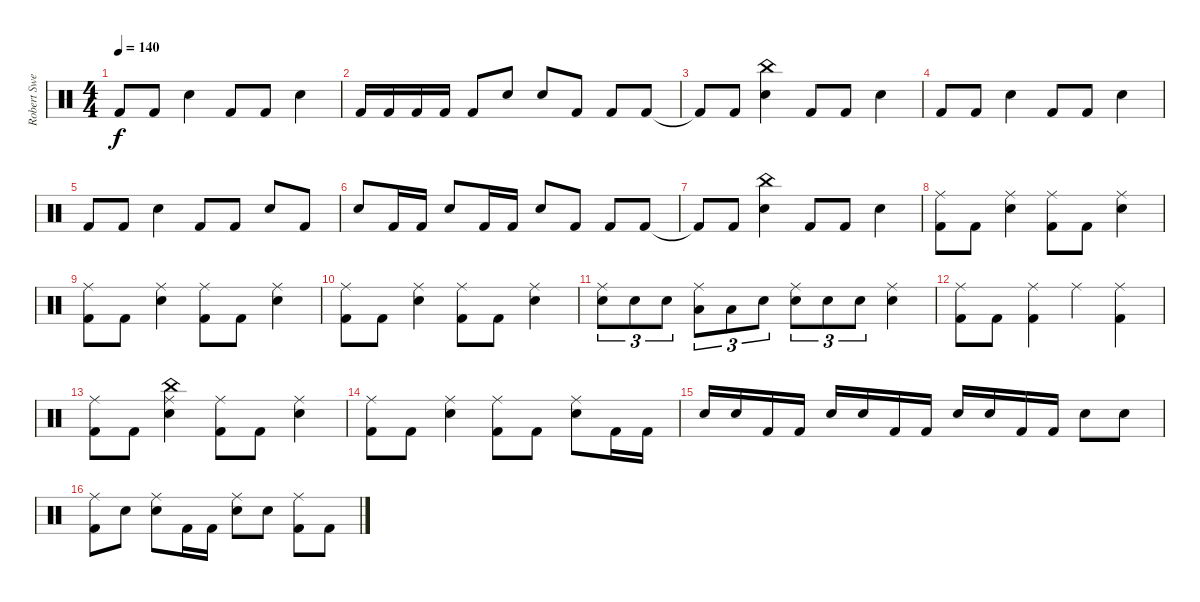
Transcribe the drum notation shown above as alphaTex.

\track ("Robert Sweet" "Robert Swe") {instrument percussion}
\staff {score}
\articulation defaults
\ts (4 4)
\tempo 140
\clef neutral
\ks c "Kick (hit) 2".8{dy f} "Kick (hit) 2".8 "Electric Snare (hit)".4 "Kick (hit) 2".8 "Kick (hit) 2".8 "Electric Snare (hit)".4
|
"Kick (hit) 2".16 "Kick (hit) 2".16 "Kick (hit) 2".16 "Kick (hit) 2".16 "Kick (hit) 2".8 "Electric Snare (hit)".8 "Electric Snare (hit)".8 "Kick (hit) 2".8 "Kick (hit) 2".8 "Kick (hit) 2".8 |
"Kick (hit) 2"{t}.8 "Kick (hit) 2".8 ("Electric Snare (hit)" "China (hit)").4 "Kick (hit) 2".8 "Kick (hit) 2".8 "Electric Snare (hit)".4 |
"Kick (hit) 2".8 "Kick (hit) 2".8 "Electric Snare (hit)".4 "Kick (hit) 2".8 "Kick (hit) 2".8 "Electric Snare (hit)".4 |
"Kick (hit) 2".8 "Kick (hit) 2".8 "Electric Snare (hit)".4 "Kick (hit) 2".8 "Kick (hit) 2".8 "Electric Snare (hit)".8 "Kick (hit) 2".8 |
"Electric Snare (hit)".8 "Kick (hit) 2".16 "Kick (hit) 2".16 "Electric Snare (hit)".8 "Kick (hit) 2".16 "Kick (hit) 2".16 "Electric Snare (hit)".8 "Kick (hit) 2".8 "Kick (hit) 2".8 "Kick (hit) 2".8 |
"Kick (hit) 2"{t}.8 "Kick (hit) 2".8 ("Electric Snare (hit)" "China (hit)").4 "Kick (hit) 2".8 "Kick (hit) 2".8 "Electric Snare (hit)".4 |
("Kick (hit) 2" "Ride (middle)").8 "Kick (hit) 2".8 ("Electric Snare (hit)" "Ride (middle)").4 ("Kick (hit) 2" "Ride (middle)").8 "Kick (hit) 2".8 ("Electric Snare (hit)" "Ride (middle)").4 |
("Kick (hit) 2" "Ride (middle)").8 "Kick (hit) 2".8 ("Electric Snare (hit)" "Ride (middle)").4 ("Kick (hit) 2" "Ride (middle)").8 "Kick (hit) 2".8 ("Electric Snare (hit)" "Ride (middle)").4 |
("Kick (hit) 2" "Ride (middle)").8 "Kick (hit) 2".8 ("Electric Snare (hit)" "Ride (middle)").4 ("Kick (hit) 2" "Ride (middle)").8 "Kick (hit) 2".8 ("Electric Snare (hit)" "Ride (middle)").4 |
("Electric Snare (hit)" "Ride (middle)").8{tu (3 2)} "Electric Snare (hit)".8{tu (3 2)} "Electric Snare (hit)".8{tu (3 2)} ("Low Floor Tom (hit)" "Ride (middle)").8{tu (3 2)} "Low Floor Tom (hit)".8{tu (3 2)} "Electric Snare (hit)".8{tu (3 2)} ("Electric Snare (hit)" "Ride (middle)").8{tu (3 2)} "Electric Snare (hit)".8{tu (3 2)} "Electric Snare (hit)".8{tu (3 2)} ("Electric Snare (hit)" "Ride (middle)").4 |
("Kick (hit) 2" "Ride (middle)").8 "Kick (hit) 2".8 ("Kick (hit) 2" "Ride (middle)").4 "Ride (middle)".4 ("Kick (hit) 2" "Ride (middle)").4 |
("Kick (hit) 2" "Ride (middle)").8 "Kick (hit) 2".8 ("Electric Snare (hit)" "China (hit)" "Ride (middle)").4 ("Kick (hit) 2" "Ride (middle)").8 "Kick (hit) 2".8 ("Electric Snare (hit)" "Ride (middle)").4 |
("Kick (hit) 2" "Ride (middle)").8 "Kick (hit) 2".8 ("Electric Snare (hit)" "Ride (middle)").4 ("Kick (hit) 2" "Ride (middle)").8 "Kick (hit) 2".8 ("Electric Snare (hit)" "Ride (middle)").8 "Kick (hit) 2".16 "Kick (hit) 2".16 |
"Electric Snare (hit)".16 "Electric Snare (hit)".16 "Kick (hit) 2".16 "Kick (hit) 2".16 "Electric Snare (hit)".16 "Electric Snare (hit)".16 "Kick (hit) 2".16 "Kick (hit) 2".16 "Electric Snare (hit)".16 "Electric Snare (hit)".16 "Kick (hit) 2".16 "Kick (hit) 2".16 "Electric Snare (hit)".8 "Electric Snare (hit)".8 |
("Kick (hit) 2" "Ride (middle)").8 "Electric Snare (hit)".8 ("Electric Snare (hit)" "Ride (middle)").8 "Kick (hit) 2".16 "Kick (hit) 2".16 ("Electric Snare (hit)" "Ride (middle)").8 "Electric Snare (hit)".8 ("Kick (hit) 2" "Ride (middle)").8 "Kick (hit) 2".8
